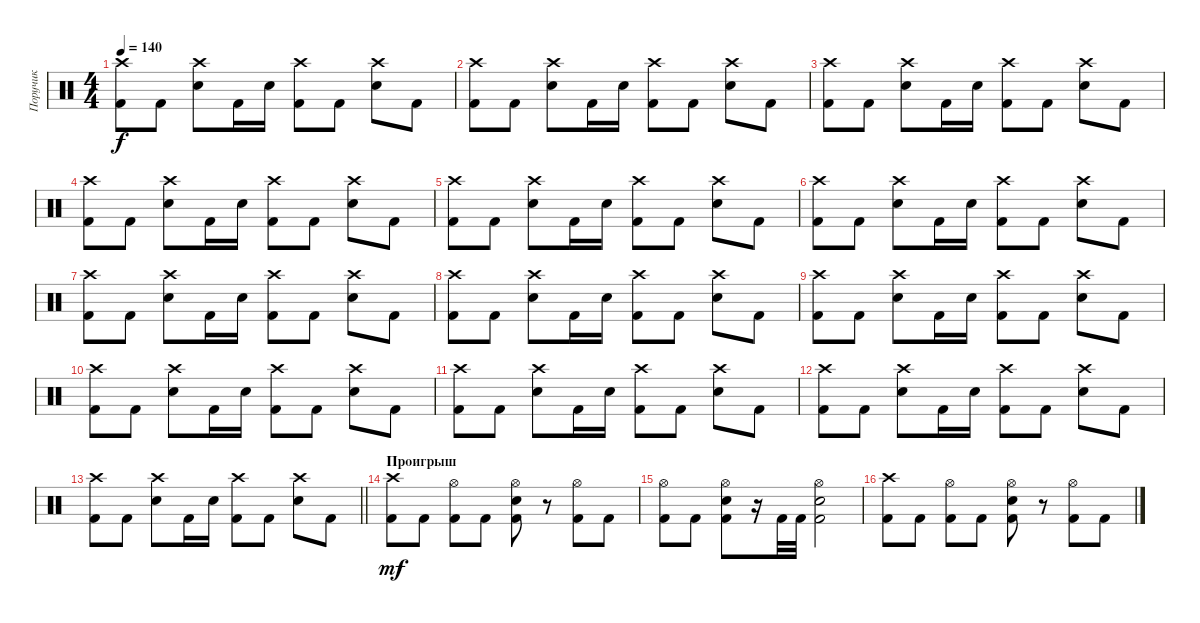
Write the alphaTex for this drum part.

\track ("Поручик" "Поручик") {instrument percussion}
\staff {score}
\articulation defaults
\ts (4 4)
\tempo 140
\clef neutral
\ks c
("Crash high (hit)" "Kick (hit) 2").8{dy f} "Kick (hit) 2".8 ("Crash high (hit)" "Electric Snare (hit)").8 "Kick (hit) 2".16 "Electric Snare (hit)".16 ("Crash high (hit)" "Kick (hit) 2").8 "Kick (hit) 2".8 ("Crash high (hit)" "Electric Snare (hit)").8 "Kick (hit) 2".8 |
("Crash high (hit)" "Kick (hit) 2").8 "Kick (hit) 2".8 ("Crash high (hit)" "Electric Snare (hit)").8 "Kick (hit) 2".16 "Electric Snare (hit)".16 ("Crash high (hit)" "Kick (hit) 2").8 "Kick (hit) 2".8 ("Crash high (hit)" "Electric Snare (hit)").8 "Kick (hit) 2".8 |
("Crash high (hit)" "Kick (hit) 2").8 "Kick (hit) 2".8 ("Crash high (hit)" "Electric Snare (hit)").8 "Kick (hit) 2".16 "Electric Snare (hit)".16 ("Crash high (hit)" "Kick (hit) 2").8 "Kick (hit) 2".8 ("Crash high (hit)" "Electric Snare (hit)").8 "Kick (hit) 2".8 |
("Crash high (hit)" "Kick (hit) 2").8 "Kick (hit) 2".8 ("Crash high (hit)" "Electric Snare (hit)").8 "Kick (hit) 2".16 "Electric Snare (hit)".16 ("Crash high (hit)" "Kick (hit) 2").8 "Kick (hit) 2".8 ("Crash high (hit)" "Electric Snare (hit)").8 "Kick (hit) 2".8 |
("Crash high (hit)" "Kick (hit) 2").8 "Kick (hit) 2".8 ("Crash high (hit)" "Electric Snare (hit)").8 "Kick (hit) 2".16 "Electric Snare (hit)".16 ("Crash high (hit)" "Kick (hit) 2").8 "Kick (hit) 2".8 ("Crash high (hit)" "Electric Snare (hit)").8 "Kick (hit) 2".8 |
("Crash high (hit)" "Kick (hit) 2").8 "Kick (hit) 2".8 ("Crash high (hit)" "Electric Snare (hit)").8 "Kick (hit) 2".16 "Electric Snare (hit)".16 ("Crash high (hit)" "Kick (hit) 2").8 "Kick (hit) 2".8 ("Crash high (hit)" "Electric Snare (hit)").8 "Kick (hit) 2".8 |
("Crash high (hit)" "Kick (hit) 2").8 "Kick (hit) 2".8 ("Crash high (hit)" "Electric Snare (hit)").8 "Kick (hit) 2".16 "Electric Snare (hit)".16 ("Crash high (hit)" "Kick (hit) 2").8 "Kick (hit) 2".8 ("Crash high (hit)" "Electric Snare (hit)").8 "Kick (hit) 2".8 |
("Crash high (hit)" "Kick (hit) 2").8 "Kick (hit) 2".8 ("Crash high (hit)" "Electric Snare (hit)").8 "Kick (hit) 2".16 "Electric Snare (hit)".16 ("Crash high (hit)" "Kick (hit) 2").8 "Kick (hit) 2".8 ("Crash high (hit)" "Electric Snare (hit)").8 "Kick (hit) 2".8 |
("Crash high (hit)" "Kick (hit) 2").8 "Kick (hit) 2".8 ("Crash high (hit)" "Electric Snare (hit)").8 "Kick (hit) 2".16 "Electric Snare (hit)".16 ("Crash high (hit)" "Kick (hit) 2").8 "Kick (hit) 2".8 ("Crash high (hit)" "Electric Snare (hit)").8 "Kick (hit) 2".8 |
("Crash high (hit)" "Kick (hit) 2").8 "Kick (hit) 2".8 ("Crash high (hit)" "Electric Snare (hit)").8 "Kick (hit) 2".16 "Electric Snare (hit)".16 ("Crash high (hit)" "Kick (hit) 2").8 "Kick (hit) 2".8 ("Crash high (hit)" "Electric Snare (hit)").8 "Kick (hit) 2".8 |
("Crash high (hit)" "Kick (hit) 2").8 "Kick (hit) 2".8 ("Crash high (hit)" "Electric Snare (hit)").8 "Kick (hit) 2".16 "Electric Snare (hit)".16 ("Crash high (hit)" "Kick (hit) 2").8 "Kick (hit) 2".8 ("Crash high (hit)" "Electric Snare (hit)").8 "Kick (hit) 2".8 |
("Crash high (hit)" "Kick (hit) 2").8 "Kick (hit) 2".8 ("Crash high (hit)" "Electric Snare (hit)").8 "Kick (hit) 2".16 "Electric Snare (hit)".16 ("Crash high (hit)" "Kick (hit) 2").8 "Kick (hit) 2".8 ("Crash high (hit)" "Electric Snare (hit)").8 "Kick (hit) 2".8 |
\barLineRight lightlight
("Crash high (hit)" "Kick (hit) 2").8 "Kick (hit) 2".8 ("Crash high (hit)" "Electric Snare (hit)").8 "Kick (hit) 2".16 "Electric Snare (hit)".16 ("Crash high (hit)" "Kick (hit) 2").8 "Kick (hit) 2".8 ("Crash high (hit)" "Electric Snare (hit)").8 "Kick (hit) 2".8 |
\section ("" "Проигрыш")
("Crash high (hit)" "Kick (hit) 2").8{dy mf} "Kick (hit) 2".8 ("Hi-Hat (open)" "Kick (hit) 2").8 "Kick (hit) 2".8 ("Hi-Hat (open)" "Electric Snare (hit)" "Kick (hit) 2").8 r.8 ("Hi-Hat (open)" "Kick (hit) 2").8 "Kick (hit) 2".8 |
("Hi-Hat (open)" "Kick (hit) 2").8 "Kick (hit) 2".8 ("Hi-Hat (open)" "Electric Snare (hit)" "Kick (hit) 2").8 r.16 "Kick (hit) 2".32 "Kick (hit) 2".32 ("Hi-Hat (open)" "Electric Snare (hit)" "Kick (hit) 2").2 |
("Crash high (hit)" "Kick (hit) 2").8 "Kick (hit) 2".8 ("Hi-Hat (open)" "Kick (hit) 2").8 "Kick (hit) 2".8 ("Hi-Hat (open)" "Electric Snare (hit)" "Kick (hit) 2").8 r.8 ("Hi-Hat (open)" "Kick (hit) 2").8 "Kick (hit) 2".8
